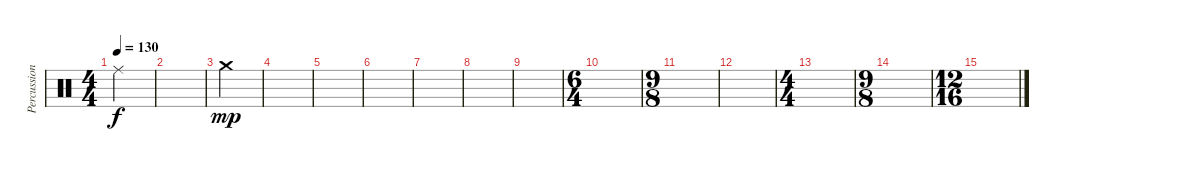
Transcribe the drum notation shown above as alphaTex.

\track ("Percussion" "Percussion") {instrument percussion}
\staff {score}
\articulation defaults
\ts (4 4)
\tempo 130
\clef neutral
\ks c "Ride (middle)".4{dy f}
|
|
"Crash medium (hit)".4{dy mp} |
|
|
|
|
|
|
\ts (6 4)
|
\ts (9 8)
|
|
\ts (4 4)
|
\ts (9 8)
|
\ts (12 16)
